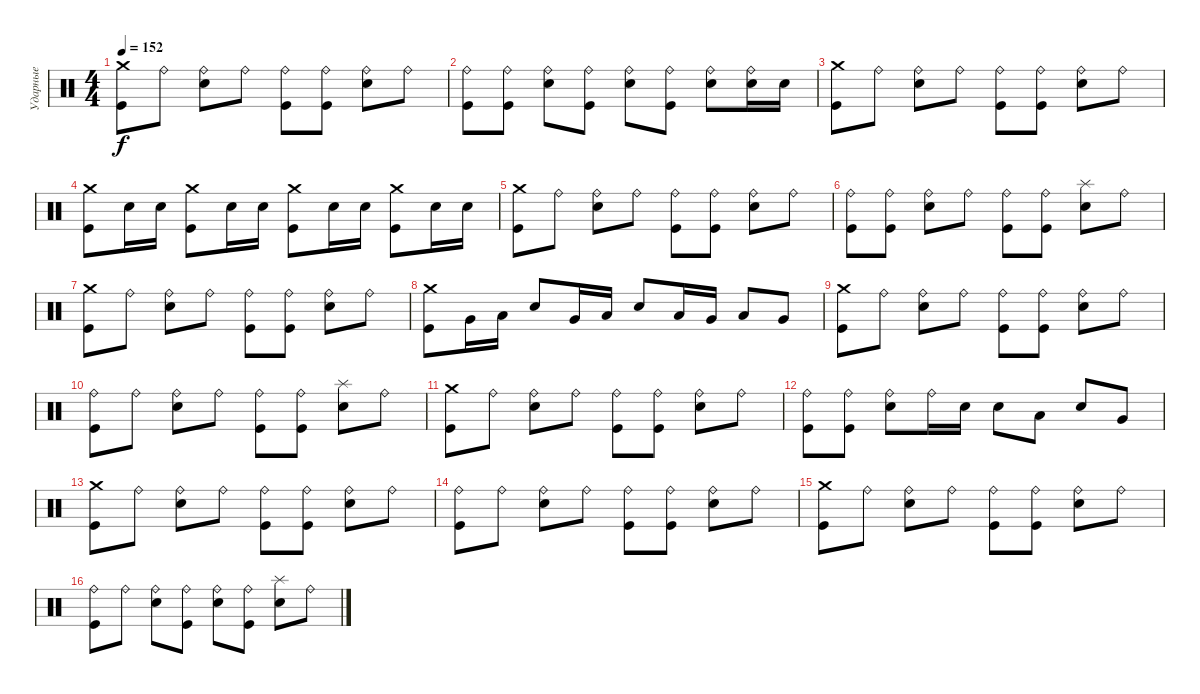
\track ("Ударные" "Ударные") {instrument percussion}
\staff {score}
\articulation defaults
\ts (4 4)
\tempo 152
\clef neutral
\ks c
("Crash medium (hit)" "Kick (hit)").8{dy f} "Ride (bell)".8 ("Ride (bell)" "Electric Snare (hit)").8 "Ride (bell)".8 ("Ride (bell)" "Kick (hit)").8 ("Ride (bell)" "Kick (hit)").8 ("Ride (bell)" "Electric Snare (hit)").8 "Ride (bell)".8 |
("Ride (bell)" "Kick (hit)").8 ("Ride (bell)" "Kick (hit)").8 ("Ride (bell)" "Electric Snare (hit)").8 ("Ride (bell)" "Kick (hit)").8 ("Ride (bell)" "Electric Snare (hit)").8 ("Ride (bell)" "Kick (hit)").8 ("Ride (bell)" "Electric Snare (hit)").8 ("Ride (bell)" "Electric Snare (hit)").16 "Electric Snare (hit)".16 |
("Crash medium (hit)" "Kick (hit)").8 "Ride (bell)".8 ("Ride (bell)" "Electric Snare (hit)").8 "Ride (bell)".8 ("Ride (bell)" "Kick (hit)").8 ("Ride (bell)" "Kick (hit)").8 ("Ride (bell)" "Electric Snare (hit)").8 "Ride (bell)".8 |
("Crash medium (hit)" "Kick (hit)").8 "Electric Snare (hit)".16 "Electric Snare (hit)".16 ("Crash medium (hit)" "Kick (hit)").8 "Electric Snare (hit)".16 "Electric Snare (hit)".16 ("Crash medium (hit)" "Kick (hit)").8 "Electric Snare (hit)".16 "Electric Snare (hit)".16 ("Crash medium (hit)" "Kick (hit)").8 "Electric Snare (hit)".16 "Electric Snare (hit)".16 |
("Crash medium (hit)" "Kick (hit)").8 "Ride (bell)".8 ("Ride (bell)" "Electric Snare (hit)").8 "Ride (bell)".8 ("Ride (bell)" "Kick (hit)").8 ("Ride (bell)" "Kick (hit)").8 ("Ride (bell)" "Electric Snare (hit)").8 "Ride (bell)".8 |
("Ride (bell)" "Kick (hit)").8 ("Ride (bell)" "Kick (hit)").8 ("Ride (bell)" "Electric Snare (hit)").8 "Ride (bell)".8 ("Ride (bell)" "Kick (hit)").8 ("Ride (bell)" "Kick (hit)").8 ("Splash (hit)" "Electric Snare (hit)").8 "Ride (bell)".8 |
("Crash medium (hit)" "Kick (hit)").8 "Ride (bell)".8 ("Ride (bell)" "Electric Snare (hit)").8 "Ride (bell)".8 ("Ride (bell)" "Kick (hit)").8 ("Ride (bell)" "Kick (hit)").8 ("Ride (bell)" "Electric Snare (hit)").8 "Ride (bell)".8 |
("Crash medium (hit)" "Kick (hit)").8 "Very Low Tom (hit)".16 "Low Tom (hit)".16 "Electric Snare (hit)".8 "Very Low Tom (hit)".16 "Low Tom (hit)".16 "Electric Snare (hit)".8 "Low Tom (hit)".16 "Very Low Tom (hit)".16 "Low Tom (hit)".8 "Very Low Tom (hit)".8 |
("Crash medium (hit)" "Kick (hit)").8 "Ride (bell)".8 ("Ride (bell)" "Electric Snare (hit)").8 "Ride (bell)".8 ("Ride (bell)" "Kick (hit)").8 ("Ride (bell)" "Kick (hit)").8 ("Ride (bell)" "Electric Snare (hit)").8 "Ride (bell)".8 |
("Ride (bell)" "Kick (hit)").8 "Ride (bell)".8 ("Ride (bell)" "Electric Snare (hit)").8 "Ride (bell)".8 ("Ride (bell)" "Kick (hit)").8 ("Ride (bell)" "Kick (hit)").8 ("Splash (hit)" "Electric Snare (hit)").8 "Ride (bell)".8 |
("Crash medium (hit)" "Kick (hit)").8 "Ride (bell)".8 ("Ride (bell)" "Electric Snare (hit)").8 "Ride (bell)".8 ("Ride (bell)" "Kick (hit)").8 ("Ride (bell)" "Kick (hit)").8 ("Ride (bell)" "Electric Snare (hit)").8 "Ride (bell)".8 |
("Ride (bell)" "Kick (hit)").8 ("Ride (bell)" "Kick (hit)").8 ("Ride (bell)" "Electric Snare (hit)").8 "Ride (bell)".16 "Electric Snare (hit)".16 "Electric Snare (hit)".8 "Low Tom (hit)".8 "Electric Snare (hit)".8 "Very Low Tom (hit)".8 |
("Crash medium (hit)" "Kick (hit)").8 "Ride (bell)".8 ("Ride (bell)" "Electric Snare (hit)").8 "Ride (bell)".8 ("Ride (bell)" "Kick (hit)").8 ("Ride (bell)" "Kick (hit)").8 ("Ride (bell)" "Electric Snare (hit)").8 "Ride (bell)".8 |
("Ride (bell)" "Kick (hit)").8 "Ride (bell)".8 ("Ride (bell)" "Electric Snare (hit)").8 "Ride (bell)".8 ("Ride (bell)" "Kick (hit)").8 ("Ride (bell)" "Kick (hit)").8 ("Ride (bell)" "Electric Snare (hit)").8 "Ride (bell)".8 |
("Crash medium (hit)" "Kick (hit)").8 "Ride (bell)".8 ("Ride (bell)" "Electric Snare (hit)").8 "Ride (bell)".8 ("Ride (bell)" "Kick (hit)").8 ("Ride (bell)" "Kick (hit)").8 ("Ride (bell)" "Electric Snare (hit)").8 "Ride (bell)".8 |
("Ride (bell)" "Kick (hit)").8 "Ride (bell)".8 ("Ride (bell)" "Electric Snare (hit)").8 ("Ride (bell)" "Kick (hit)").8 ("Ride (bell)" "Electric Snare (hit)").8 ("Ride (bell)" "Kick (hit)").8 ("Splash (hit)" "Electric Snare (hit)").8 "Ride (bell)".8
